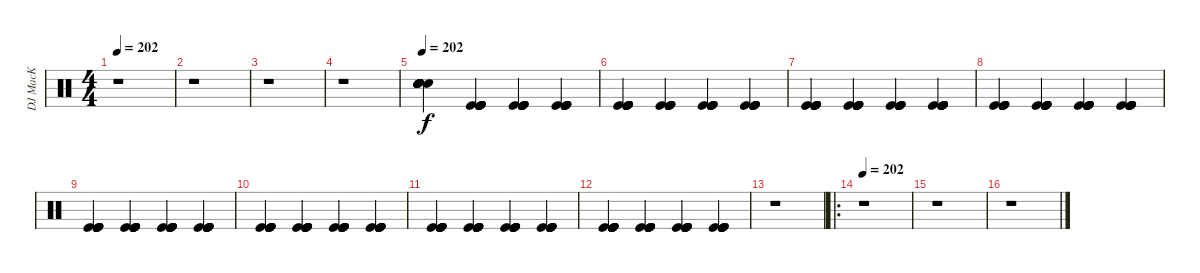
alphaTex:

\track ("DJ MacK" "DJ MacK") {instrument percussion}
\staff {score}
\articulation defaults
\ts (4 4)
\tempo 202
\clef neutral
\ks c
r.1{dy f} |
r.1 |
r.1 |
r.1 |
\tempo 202
("Hand Clap (hit)" "Hand Clap (hit)" "Hand Clap (hit)" "Hand Clap (hit)" "Hand Clap (hit)" "Hand Clap (hit)").4 ("Kick (hit)" "Kick (hit)" "Kick (hit)" "Kick (hit)" "Kick (hit)" "Kick (hit)").4 ("Kick (hit)" "Kick (hit)" "Kick (hit)" "Kick (hit)" "Kick (hit)" "Kick (hit)").4 ("Kick (hit)" "Kick (hit)" "Kick (hit)" "Kick (hit)" "Kick (hit)" "Kick (hit)").4 |
("Kick (hit)" "Kick (hit)" "Kick (hit)" "Kick (hit)" "Kick (hit)" "Kick (hit)").4 ("Kick (hit)" "Kick (hit)" "Kick (hit)" "Kick (hit)" "Kick (hit)" "Kick (hit)").4 ("Kick (hit)" "Kick (hit)" "Kick (hit)" "Kick (hit)" "Kick (hit)" "Kick (hit)").4 ("Kick (hit)" "Kick (hit)" "Kick (hit)" "Kick (hit)" "Kick (hit)" "Kick (hit)").4 |
("Kick (hit)" "Kick (hit)" "Kick (hit)" "Kick (hit)" "Kick (hit)" "Kick (hit)").4 ("Kick (hit)" "Kick (hit)" "Kick (hit)" "Kick (hit)" "Kick (hit)" "Kick (hit)").4 ("Kick (hit)" "Kick (hit)" "Kick (hit)" "Kick (hit)" "Kick (hit)" "Kick (hit)").4 ("Kick (hit)" "Kick (hit)" "Kick (hit)" "Kick (hit)" "Kick (hit)" "Kick (hit)").4 |
("Kick (hit)" "Kick (hit)" "Kick (hit)" "Kick (hit)" "Kick (hit)" "Kick (hit)").4 ("Kick (hit)" "Kick (hit)" "Kick (hit)" "Kick (hit)" "Kick (hit)" "Kick (hit)").4 ("Kick (hit)" "Kick (hit)" "Kick (hit)" "Kick (hit)" "Kick (hit)" "Kick (hit)").4 ("Kick (hit)" "Kick (hit)" "Kick (hit)" "Kick (hit)" "Kick (hit)" "Kick (hit)").4 |
("Kick (hit)" "Kick (hit)" "Kick (hit)" "Kick (hit)" "Kick (hit)" "Kick (hit)").4 ("Kick (hit)" "Kick (hit)" "Kick (hit)" "Kick (hit)" "Kick (hit)" "Kick (hit)").4 ("Kick (hit)" "Kick (hit)" "Kick (hit)" "Kick (hit)" "Kick (hit)" "Kick (hit)").4 ("Kick (hit)" "Kick (hit)" "Kick (hit)" "Kick (hit)" "Kick (hit)" "Kick (hit)").4 |
("Kick (hit)" "Kick (hit)" "Kick (hit)" "Kick (hit)" "Kick (hit)" "Kick (hit)").4 ("Kick (hit)" "Kick (hit)" "Kick (hit)" "Kick (hit)" "Kick (hit)" "Kick (hit)").4 ("Kick (hit)" "Kick (hit)" "Kick (hit)" "Kick (hit)" "Kick (hit)" "Kick (hit)").4 ("Kick (hit)" "Kick (hit)" "Kick (hit)" "Kick (hit)" "Kick (hit)" "Kick (hit)").4 |
("Kick (hit)" "Kick (hit)" "Kick (hit)" "Kick (hit)" "Kick (hit)" "Kick (hit)").4 ("Kick (hit)" "Kick (hit)" "Kick (hit)" "Kick (hit)" "Kick (hit)" "Kick (hit)").4 ("Kick (hit)" "Kick (hit)" "Kick (hit)" "Kick (hit)" "Kick (hit)" "Kick (hit)").4 ("Kick (hit)" "Kick (hit)" "Kick (hit)" "Kick (hit)" "Kick (hit)" "Kick (hit)").4 |
("Kick (hit)" "Kick (hit)" "Kick (hit)" "Kick (hit)" "Kick (hit)" "Kick (hit)").4 ("Kick (hit)" "Kick (hit)" "Kick (hit)" "Kick (hit)" "Kick (hit)" "Kick (hit)").4 ("Kick (hit)" "Kick (hit)" "Kick (hit)" "Kick (hit)" "Kick (hit)" "Kick (hit)").4 ("Kick (hit)" "Kick (hit)" "Kick (hit)" "Kick (hit)" "Kick (hit)" "Kick (hit)").4 |
r.1 |
\ro
\tempo 202
r.1 |
r.1 |
r.1
